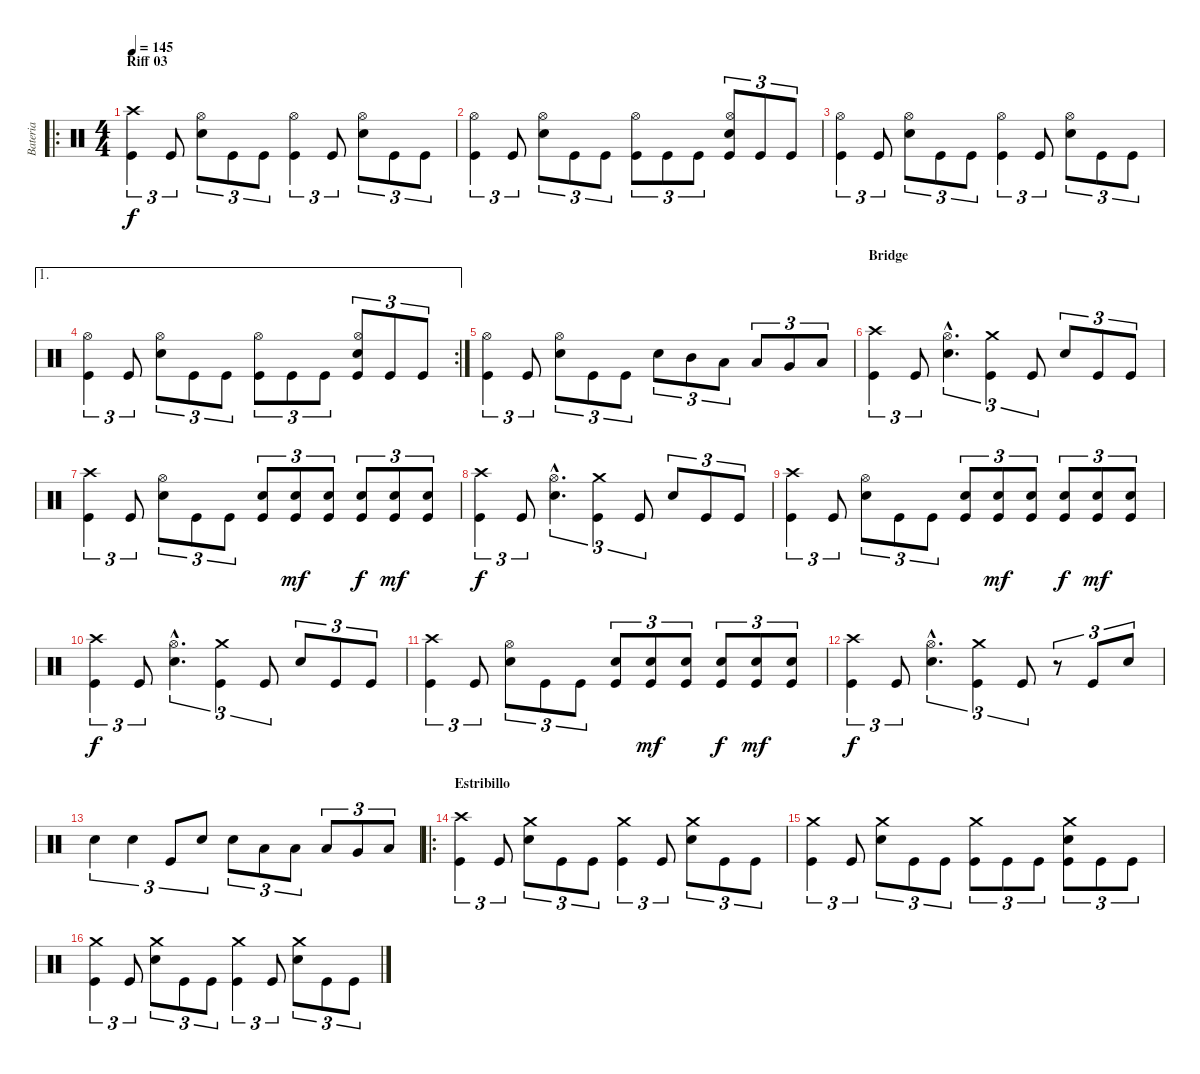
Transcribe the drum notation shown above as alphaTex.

\track ("Bateria" "Bateria") {instrument percussion}
\staff {score}
\articulation defaults
\ro
\ts (4 4)
\section ("" "Riff 03")
\tempo 145
\clef neutral
\ks c
("Crash high (hit)" "Kick (hit)").4{tu (3 2) dy f} "Kick (hit)".8{tu (3 2)} ("Hi-Hat (open)" "Snare (hit) 2").8{tu (3 2)} "Kick (hit)".8{tu (3 2)} "Kick (hit)".8{tu (3 2)} ("Hi-Hat (open)" "Kick (hit)").4{tu (3 2)} "Kick (hit)".8{tu (3 2)} ("Hi-Hat (open)" "Snare (hit) 2").8{tu (3 2)} "Kick (hit)".8{tu (3 2)} "Kick (hit)".8{tu (3 2)} |
("Hi-Hat (open)" "Kick (hit)").4{tu (3 2)} "Kick (hit)".8{tu (3 2)} ("Hi-Hat (open)" "Snare (hit) 2").8{tu (3 2)} "Kick (hit)".8{tu (3 2)} "Kick (hit)".8{tu (3 2)} ("Hi-Hat (open)" "Kick (hit)").8{tu (3 2)} "Kick (hit)".8{tu (3 2)} "Kick (hit)".8{tu (3 2)} ("Hi-Hat (open)" "Snare (hit) 2" "Kick (hit)").8{tu (3 2)} "Kick (hit)".8{tu (3 2)} "Kick (hit)".8{tu (3 2)} |
("Hi-Hat (open)" "Kick (hit)").4{tu (3 2)} "Kick (hit)".8{tu (3 2)} ("Hi-Hat (open)" "Snare (hit) 2").8{tu (3 2)} "Kick (hit)".8{tu (3 2)} "Kick (hit)".8{tu (3 2)} ("Hi-Hat (open)" "Kick (hit)").4{tu (3 2)} "Kick (hit)".8{tu (3 2)} ("Hi-Hat (open)" "Snare (hit) 2").8{tu (3 2)} "Kick (hit)".8{tu (3 2)} "Kick (hit)".8{tu (3 2)} |
\ae 1
\rc 2
("Hi-Hat (open)" "Kick (hit)").4{tu (3 2)} "Kick (hit)".8{tu (3 2)} ("Hi-Hat (open)" "Snare (hit) 2").8{tu (3 2)} "Kick (hit)".8{tu (3 2)} "Kick (hit)".8{tu (3 2)} ("Hi-Hat (open)" "Kick (hit)").8{tu (3 2)} "Kick (hit)".8{tu (3 2)} "Kick (hit)".8{tu (3 2)} ("Hi-Hat (open)" "Snare (hit) 2" "Kick (hit)").8{tu (3 2)} "Kick (hit)".8{tu (3 2)} "Kick (hit)".8{tu (3 2)} |
("Hi-Hat (open)" "Kick (hit)").4{tu (3 2)} "Kick (hit)".8{tu (3 2)} ("Hi-Hat (open)" "Snare (hit) 2").8{tu (3 2)} "Kick (hit)".8{tu (3 2)} "Kick (hit)".8{tu (3 2)} "Snare (hit) 2".8{tu (3 2)} "Mid Tom (hit)".8{tu (3 2)} "Low Tom (hit)".8{tu (3 2)} "Low Tom (hit)".8{tu (3 2)} "Very Low Tom (hit)".8{tu (3 2)} "Low Floor Tom (hit)".8{tu (3 2)} |
\section ("" "Bridge")
("Crash high (hit)" "Kick (hit)").4{tu (3 2)} "Kick (hit)".8{tu (3 2)} ("Hi-Hat (open)"{hac} "Snare (hit) 2"{hac}).4{d tu (3 2)} ("Crash medium (hit)" "Kick (hit)").4{tu (3 2)} "Kick (hit)".8{tu (3 2)} "Snare (hit) 2".8{tu (3 2)} "Kick (hit)".8{tu (3 2)} "Kick (hit)".8{tu (3 2)} |
("Crash high (hit)" "Kick (hit)").4{tu (3 2)} "Kick (hit)".8{tu (3 2)} ("Hi-Hat (open)" "Snare (hit) 2").8{tu (3 2)} "Kick (hit)".8{tu (3 2)} "Kick (hit)".8{tu (3 2)} ("Snare (hit) 2" "Kick (hit)").8{tu (3 2)} ("Snare (hit) 2" "Kick (hit)").8{tu (3 2) dy mf} ("Snare (hit) 2" "Kick (hit)").8{tu (3 2)} ("Snare (hit) 2" "Kick (hit)").8{tu (3 2) dy f} ("Snare (hit) 2" "Kick (hit)").8{tu (3 2) dy mf} ("Snare (hit) 2" "Kick (hit)").8{tu (3 2)} |
("Crash high (hit)" "Kick (hit)").4{tu (3 2) dy f} "Kick (hit)".8{tu (3 2)} ("Hi-Hat (open)"{hac} "Snare (hit) 2"{hac}).4{d tu (3 2)} ("Crash medium (hit)" "Kick (hit)").4{tu (3 2)} "Kick (hit)".8{tu (3 2)} "Snare (hit) 2".8{tu (3 2)} "Kick (hit)".8{tu (3 2)} "Kick (hit)".8{tu (3 2)} |
("Crash high (hit)" "Kick (hit)").4{tu (3 2)} "Kick (hit)".8{tu (3 2)} ("Hi-Hat (open)" "Snare (hit) 2").8{tu (3 2)} "Kick (hit)".8{tu (3 2)} "Kick (hit)".8{tu (3 2)} ("Snare (hit) 2" "Kick (hit)").8{tu (3 2)} ("Snare (hit) 2" "Kick (hit)").8{tu (3 2) dy mf} ("Snare (hit) 2" "Kick (hit)").8{tu (3 2)} ("Snare (hit) 2" "Kick (hit)").8{tu (3 2) dy f} ("Snare (hit) 2" "Kick (hit)").8{tu (3 2) dy mf} ("Snare (hit) 2" "Kick (hit)").8{tu (3 2)} |
("Crash high (hit)" "Kick (hit)").4{tu (3 2) dy f} "Kick (hit)".8{tu (3 2)} ("Hi-Hat (open)"{hac} "Snare (hit) 2"{hac}).4{d tu (3 2)} ("Crash medium (hit)" "Kick (hit)").4{tu (3 2)} "Kick (hit)".8{tu (3 2)} "Snare (hit) 2".8{tu (3 2)} "Kick (hit)".8{tu (3 2)} "Kick (hit)".8{tu (3 2)} |
("Crash high (hit)" "Kick (hit)").4{tu (3 2)} "Kick (hit)".8{tu (3 2)} ("Hi-Hat (open)" "Snare (hit) 2").8{tu (3 2)} "Kick (hit)".8{tu (3 2)} "Kick (hit)".8{tu (3 2)} ("Snare (hit) 2" "Kick (hit)").8{tu (3 2)} ("Snare (hit) 2" "Kick (hit)").8{tu (3 2) dy mf} ("Snare (hit) 2" "Kick (hit)").8{tu (3 2)} ("Snare (hit) 2" "Kick (hit)").8{tu (3 2) dy f} ("Snare (hit) 2" "Kick (hit)").8{tu (3 2) dy mf} ("Snare (hit) 2" "Kick (hit)").8{tu (3 2)} |
("Crash high (hit)" "Kick (hit)").4{tu (3 2) dy f} "Kick (hit)".8{tu (3 2)} ("Hi-Hat (open)"{hac} "Snare (hit) 2"{hac}).4{d tu (3 2)} ("Crash medium (hit)" "Kick (hit)").4{tu (3 2)} "Kick (hit)".8{tu (3 2)} r.8{tu (3 2)} "Kick (hit)".8{tu (3 2)} "Snare (hit) 2".8{tu (3 2)} |
"Snare (hit) 2".4{tu (3 2)} "Snare (hit) 2".4{tu (3 2)} "Kick (hit)".8{tu (3 2)} "Snare (hit) 2".8{tu (3 2)} "Snare (hit) 2".8{tu (3 2)} "Low Tom (hit)".8{tu (3 2)} "Low Tom (hit)".8{tu (3 2)} "Low Tom (hit)".8{tu (3 2)} "Very Low Tom (hit)".8{tu (3 2)} "Low Floor Tom (hit)".8{tu (3 2)} |
\ro
\section ("" "Estribillo")
("Crash high (hit)" "Kick (hit)").4{tu (3 2)} "Kick (hit)".8{tu (3 2)} ("Crash medium (hit)" "Snare (hit) 2").8{tu (3 2)} "Kick (hit)".8{tu (3 2)} "Kick (hit)".8{tu (3 2)} ("Crash medium (hit)" "Kick (hit)").4{tu (3 2)} "Kick (hit)".8{tu (3 2)} ("Crash medium (hit)" "Snare (hit) 2").8{tu (3 2)} "Kick (hit)".8{tu (3 2)} "Kick (hit)".8{tu (3 2)} |
("Crash medium (hit)" "Kick (hit)").4{tu (3 2)} "Kick (hit)".8{tu (3 2)} ("Crash medium (hit)" "Snare (hit) 2").8{tu (3 2)} "Kick (hit)".8{tu (3 2)} "Kick (hit)".8{tu (3 2)} ("Crash medium (hit)" "Kick (hit)").8{tu (3 2)} "Kick (hit)".8{tu (3 2)} "Kick (hit)".8{tu (3 2)} ("Crash medium (hit)" "Snare (hit) 2" "Kick (hit)").8{tu (3 2)} "Kick (hit)".8{tu (3 2)} "Kick (hit)".8{tu (3 2)} |
("Crash medium (hit)" "Kick (hit)").4{tu (3 2)} "Kick (hit)".8{tu (3 2)} ("Crash medium (hit)" "Snare (hit) 2").8{tu (3 2)} "Kick (hit)".8{tu (3 2)} "Kick (hit)".8{tu (3 2)} ("Crash medium (hit)" "Kick (hit)").4{tu (3 2)} "Kick (hit)".8{tu (3 2)} ("Crash medium (hit)" "Snare (hit) 2").8{tu (3 2)} "Kick (hit)".8{tu (3 2)} "Kick (hit)".8{tu (3 2)}
